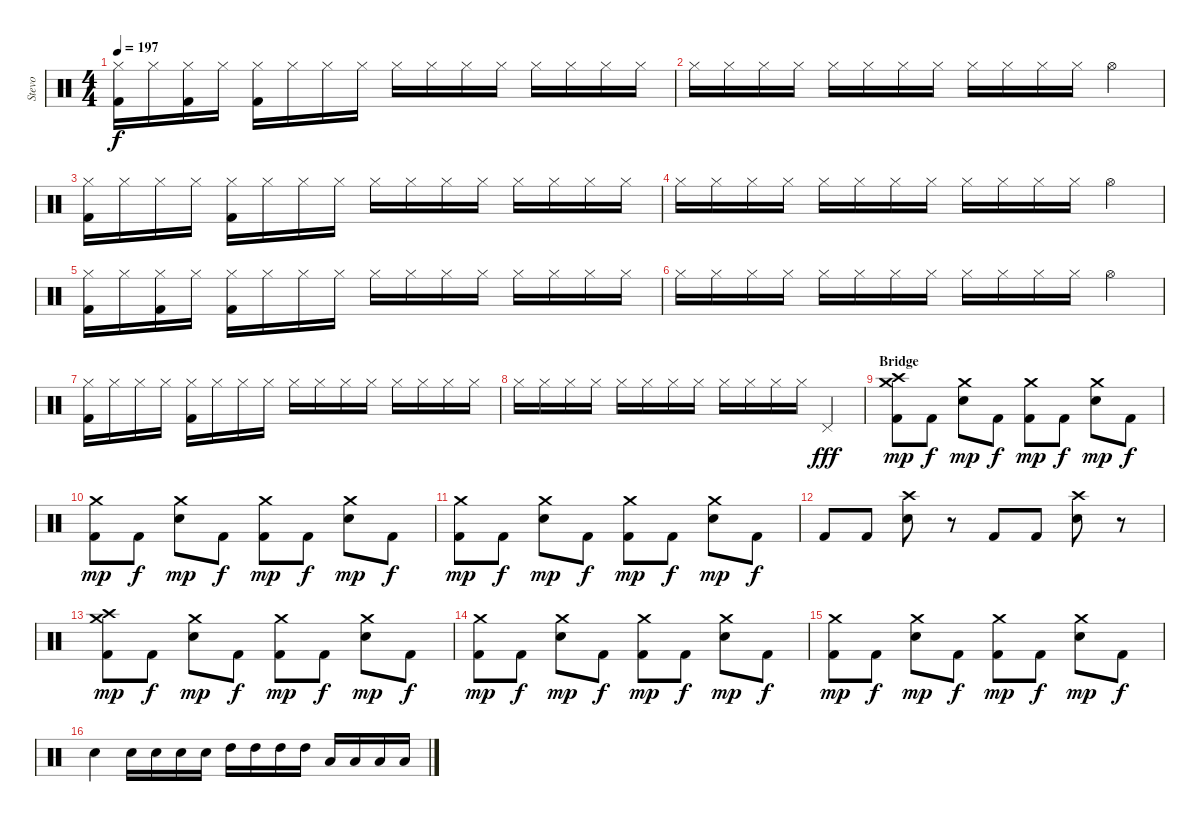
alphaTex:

\track ("Stevo" "Stevo") {instrument percussion}
\staff {score}
\articulation defaults
\ts (4 4)
\tempo 197
\clef neutral
\ks c
("Hi-Hat (closed)" "Kick (hit) 2").16{dy f} "Hi-Hat (closed)".16 ("Hi-Hat (closed)" "Kick (hit) 2").16 "Hi-Hat (closed)".16 ("Hi-Hat (closed)" "Kick (hit) 2").16 "Hi-Hat (closed)".16 "Hi-Hat (closed)".16 "Hi-Hat (closed)".16 "Hi-Hat (closed)".16 "Hi-Hat (closed)".16 "Hi-Hat (closed)".16 "Hi-Hat (closed)".16 "Hi-Hat (closed)".16 "Hi-Hat (closed)".16 "Hi-Hat (closed)".16 "Hi-Hat (closed)".16 |
"Hi-Hat (closed)".16 "Hi-Hat (closed)".16 "Hi-Hat (closed)".16 "Hi-Hat (closed)".16 "Hi-Hat (closed)".16 "Hi-Hat (closed)".16 "Hi-Hat (closed)".16 "Hi-Hat (closed)".16 "Hi-Hat (closed)".16 "Hi-Hat (closed)".16 "Hi-Hat (closed)".16 "Hi-Hat (closed)".16 "Hi-Hat (open)".4 |
("Hi-Hat (closed)" "Kick (hit) 2").16 "Hi-Hat (closed)".16 "Hi-Hat (closed)".16 "Hi-Hat (closed)".16 ("Hi-Hat (closed)" "Kick (hit) 2").16 "Hi-Hat (closed)".16 "Hi-Hat (closed)".16 "Hi-Hat (closed)".16 "Hi-Hat (closed)".16 "Hi-Hat (closed)".16 "Hi-Hat (closed)".16 "Hi-Hat (closed)".16 "Hi-Hat (closed)".16 "Hi-Hat (closed)".16 "Hi-Hat (closed)".16 "Hi-Hat (closed)".16 |
"Hi-Hat (closed)".16 "Hi-Hat (closed)".16 "Hi-Hat (closed)".16 "Hi-Hat (closed)".16 "Hi-Hat (closed)".16 "Hi-Hat (closed)".16 "Hi-Hat (closed)".16 "Hi-Hat (closed)".16 "Hi-Hat (closed)".16 "Hi-Hat (closed)".16 "Hi-Hat (closed)".16 "Hi-Hat (closed)".16 "Hi-Hat (open)".4 |
("Hi-Hat (closed)" "Kick (hit) 2").16 "Hi-Hat (closed)".16 ("Hi-Hat (closed)" "Kick (hit) 2").16 "Hi-Hat (closed)".16 ("Hi-Hat (closed)" "Kick (hit) 2").16 "Hi-Hat (closed)".16 "Hi-Hat (closed)".16 "Hi-Hat (closed)".16 "Hi-Hat (closed)".16 "Hi-Hat (closed)".16 "Hi-Hat (closed)".16 "Hi-Hat (closed)".16 "Hi-Hat (closed)".16 "Hi-Hat (closed)".16 "Hi-Hat (closed)".16 "Hi-Hat (closed)".16 |
"Hi-Hat (closed)".16 "Hi-Hat (closed)".16 "Hi-Hat (closed)".16 "Hi-Hat (closed)".16 "Hi-Hat (closed)".16 "Hi-Hat (closed)".16 "Hi-Hat (closed)".16 "Hi-Hat (closed)".16 "Hi-Hat (closed)".16 "Hi-Hat (closed)".16 "Hi-Hat (closed)".16 "Hi-Hat (closed)".16 "Hi-Hat (open)".4 |
("Hi-Hat (closed)" "Kick (hit) 2").16 "Hi-Hat (closed)".16 "Hi-Hat (closed)".16 "Hi-Hat (closed)".16 ("Hi-Hat (closed)" "Kick (hit) 2").16 "Hi-Hat (closed)".16 "Hi-Hat (closed)".16 "Hi-Hat (closed)".16 "Hi-Hat (closed)".16 "Hi-Hat (closed)".16 "Hi-Hat (closed)".16 "Hi-Hat (closed)".16 "Hi-Hat (closed)".16 "Hi-Hat (closed)".16 "Hi-Hat (closed)".16 "Hi-Hat (closed)".16 |
"Hi-Hat (closed)".16 "Hi-Hat (closed)".16 "Hi-Hat (closed)".16 "Hi-Hat (closed)".16 "Hi-Hat (closed)".16 "Hi-Hat (closed)".16 "Hi-Hat (closed)".16 "Hi-Hat (closed)".16 "Hi-Hat (closed)".16 "Hi-Hat (closed)".16 "Hi-Hat (closed)".16 "Hi-Hat (closed)".16 "Pedal Hi-Hat (hit)".4{dy fff} |
\section ("" "Bridge")
("Crash high (hit)" "Crash medium (hit)" "Kick (hit) 2").8{dy mp} "Kick (hit) 2".8{dy f} ("Crash medium (hit)" "Electric Snare (hit)").8{dy mp} "Kick (hit) 2".8{dy f} ("Crash medium (hit)" "Kick (hit) 2").8{dy mp} "Kick (hit) 2".8{dy f} ("Crash medium (hit)" "Electric Snare (hit)").8{dy mp} "Kick (hit) 2".8{dy f} |
("Crash medium (hit)" "Kick (hit) 2").8{dy mp} "Kick (hit) 2".8{dy f} ("Crash medium (hit)" "Electric Snare (hit)").8{dy mp} "Kick (hit) 2".8{dy f} ("Crash medium (hit)" "Kick (hit) 2").8{dy mp} "Kick (hit) 2".8{dy f} ("Crash medium (hit)" "Electric Snare (hit)").8{dy mp} "Kick (hit) 2".8{dy f} |
("Crash medium (hit)" "Kick (hit) 2").8{dy mp} "Kick (hit) 2".8{dy f} ("Crash medium (hit)" "Electric Snare (hit)").8{dy mp} "Kick (hit) 2".8{dy f} ("Crash medium (hit)" "Kick (hit) 2").8{dy mp} "Kick (hit) 2".8{dy f} ("Crash medium (hit)" "Electric Snare (hit)").8{dy mp} "Kick (hit) 2".8{dy f} |
"Kick (hit) 2".8 "Kick (hit) 2".8 ("Crash high (hit)" "Electric Snare (hit)").8 r.8 "Kick (hit) 2".8 "Kick (hit) 2".8 ("Crash high (hit)" "Electric Snare (hit)").8 r.8 |
("Crash high (hit)" "Crash medium (hit)" "Kick (hit) 2").8{dy mp} "Kick (hit) 2".8{dy f} ("Crash medium (hit)" "Electric Snare (hit)").8{dy mp} "Kick (hit) 2".8{dy f} ("Crash medium (hit)" "Kick (hit) 2").8{dy mp} "Kick (hit) 2".8{dy f} ("Crash medium (hit)" "Electric Snare (hit)").8{dy mp} "Kick (hit) 2".8{dy f} |
("Crash medium (hit)" "Kick (hit) 2").8{dy mp} "Kick (hit) 2".8{dy f} ("Crash medium (hit)" "Electric Snare (hit)").8{dy mp} "Kick (hit) 2".8{dy f} ("Crash medium (hit)" "Kick (hit) 2").8{dy mp} "Kick (hit) 2".8{dy f} ("Crash medium (hit)" "Electric Snare (hit)").8{dy mp} "Kick (hit) 2".8{dy f} |
("Crash medium (hit)" "Kick (hit) 2").8{dy mp} "Kick (hit) 2".8{dy f} ("Crash medium (hit)" "Electric Snare (hit)").8{dy mp} "Kick (hit) 2".8{dy f} ("Crash medium (hit)" "Kick (hit) 2").8{dy mp} "Kick (hit) 2".8{dy f} ("Crash medium (hit)" "Electric Snare (hit)").8{dy mp} "Kick (hit) 2".8{dy f} |
"Electric Snare (hit)".4 "Electric Snare (hit)".16 "Electric Snare (hit)".16 "Electric Snare (hit)".16 "Electric Snare (hit)".16 "High Tom (hit)".16 "High Tom (hit)".16 "High Tom (hit)".16 "High Tom (hit)".16 "Low Tom (hit)".16 "Low Tom (hit)".16 "Low Tom (hit)".16 "Low Tom (hit)".16
